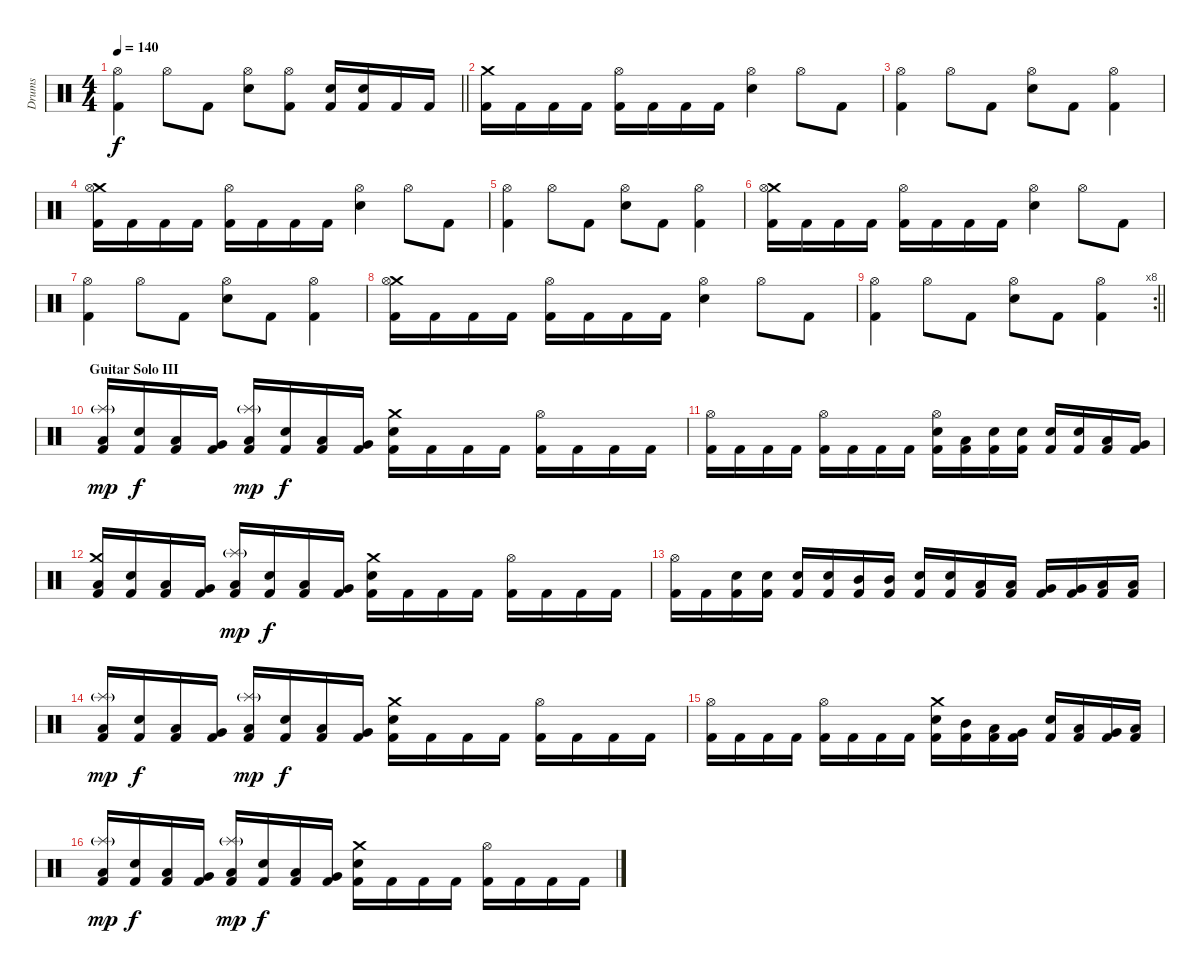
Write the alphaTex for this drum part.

\track ("Drums" "Drums") {instrument percussion}
\staff {score}
\articulation defaults
\ts (4 4)
\tempo 140
\clef neutral
\barLineRight lightlight
\ks c
("Hi-Hat (open)" "Kick (hit) 2").4{dy f} "Hi-Hat (open)".8 "Kick (hit) 2".8 ("Hi-Hat (open)" "Electric Snare (hit)").8 ("Hi-Hat (open)" "Kick (hit) 2").8 ("Electric Snare (hit)" "Kick (hit) 2").16 ("Electric Snare (hit)" "Kick (hit) 2").16 "Kick (hit) 2".16 "Kick (hit) 2".16 |
\section ("" "")
("Crash medium (hit)" "Kick (hit) 2").16 "Kick (hit) 2".16 "Kick (hit) 2".16 "Kick (hit) 2".16 ("Hi-Hat (open)" "Kick (hit) 2").16 "Kick (hit) 2".16 "Kick (hit) 2".16 "Kick (hit) 2".16 ("Hi-Hat (open)" "Electric Snare (hit)").4 "Hi-Hat (open)".8 "Kick (hit) 2".8 |
("Hi-Hat (open)" "Kick (hit) 2").4 "Hi-Hat (open)".8 "Kick (hit) 2".8 ("Hi-Hat (open)" "Electric Snare (hit)").8 "Kick (hit) 2".8 ("Hi-Hat (open)" "Kick (hit) 2").4 |
("Crash medium (hit)" "Hi-Hat (open)" "Kick (hit) 2").16 "Kick (hit) 2".16 "Kick (hit) 2".16 "Kick (hit) 2".16 ("Hi-Hat (open)" "Kick (hit) 2").16 "Kick (hit) 2".16 "Kick (hit) 2".16 "Kick (hit) 2".16 ("Hi-Hat (open)" "Electric Snare (hit)").4 "Hi-Hat (open)".8 "Kick (hit) 2".8 |
("Hi-Hat (open)" "Kick (hit) 2").4 "Hi-Hat (open)".8 "Kick (hit) 2".8 ("Hi-Hat (open)" "Electric Snare (hit)").8 "Kick (hit) 2".8 ("Hi-Hat (open)" "Kick (hit) 2").4 |
("Crash medium (hit)" "Hi-Hat (open)" "Kick (hit) 2").16 "Kick (hit) 2".16 "Kick (hit) 2".16 "Kick (hit) 2".16 ("Hi-Hat (open)" "Kick (hit) 2").16 "Kick (hit) 2".16 "Kick (hit) 2".16 "Kick (hit) 2".16 ("Hi-Hat (open)" "Electric Snare (hit)").4 "Hi-Hat (open)".8 "Kick (hit) 2".8 |
("Hi-Hat (open)" "Kick (hit) 2").4 "Hi-Hat (open)".8 "Kick (hit) 2".8 ("Hi-Hat (open)" "Electric Snare (hit)").8 "Kick (hit) 2".8 ("Hi-Hat (open)" "Kick (hit) 2").4 |
("Crash medium (hit)" "Hi-Hat (open)" "Kick (hit) 2").16 "Kick (hit) 2".16 "Kick (hit) 2".16 "Kick (hit) 2".16 ("Hi-Hat (open)" "Kick (hit) 2").16 "Kick (hit) 2".16 "Kick (hit) 2".16 "Kick (hit) 2".16 ("Hi-Hat (open)" "Electric Snare (hit)").4 "Hi-Hat (open)".8 "Kick (hit) 2".8 |
\rc 8
\barLineRight lightlight
("Hi-Hat (open)" "Kick (hit) 2").4 "Hi-Hat (open)".8 "Kick (hit) 2".8 ("Hi-Hat (open)" "Electric Snare (hit)").8 "Kick (hit) 2".8 ("Hi-Hat (open)" "Kick (hit) 2").4 |
\section ("" "Guitar Solo III")
("Splash (hit)"{g} "Low Tom (hit)" "Kick (hit) 2").16{dy mp} ("Electric Snare (hit)" "Kick (hit) 2").16{dy f} ("Low Tom (hit)" "Kick (hit) 2").16 ("Very Low Tom (hit)" "Kick (hit) 2").16 ("Splash (hit)"{g} "Low Tom (hit)" "Kick (hit) 2").16{dy mp} ("Electric Snare (hit)" "Kick (hit) 2").16{dy f} ("Low Tom (hit)" "Kick (hit) 2").16 ("Very Low Tom (hit)" "Kick (hit) 2").16 ("Crash medium (hit)" "Electric Snare (hit)" "Kick (hit) 2").16 "Kick (hit) 2".16 "Kick (hit) 2".16 "Kick (hit) 2".16 ("Hi-Hat (open)" "Kick (hit) 2").16 "Kick (hit) 2".16 "Kick (hit) 2".16 "Kick (hit) 2".16 |
("Hi-Hat (open)" "Kick (hit) 2").16 "Kick (hit) 2".16 "Kick (hit) 2".16 "Kick (hit) 2".16 ("Hi-Hat (open)" "Kick (hit) 2").16 "Kick (hit) 2".16 "Kick (hit) 2".16 "Kick (hit) 2".16 ("Hi-Hat (open)" "Electric Snare (hit)" "Kick (hit) 2").16 ("Low Tom (hit)" "Kick (hit) 2").16 ("Electric Snare (hit)" "Kick (hit) 2").16 ("Electric Snare (hit)" "Kick (hit) 2").16 ("Electric Snare (hit)" "Kick (hit) 2").16 ("Electric Snare (hit)" "Kick (hit) 2").16 ("Low Tom (hit)" "Kick (hit) 2").16 ("Very Low Tom (hit)" "Kick (hit) 2").16 |
("Crash medium (hit)" "Low Tom (hit)" "Kick (hit) 2").16 ("Electric Snare (hit)" "Kick (hit) 2").16 ("Low Tom (hit)" "Kick (hit) 2").16 ("Very Low Tom (hit)" "Kick (hit) 2").16 ("Splash (hit)"{g} "Low Tom (hit)" "Kick (hit) 2").16{dy mp} ("Electric Snare (hit)" "Kick (hit) 2").16{dy f} ("Low Tom (hit)" "Kick (hit) 2").16 ("Very Low Tom (hit)" "Kick (hit) 2").16 ("Crash medium (hit)" "Electric Snare (hit)" "Kick (hit) 2").16 "Kick (hit) 2".16 "Kick (hit) 2".16 "Kick (hit) 2".16 ("Hi-Hat (open)" "Kick (hit) 2").16 "Kick (hit) 2".16 "Kick (hit) 2".16 "Kick (hit) 2".16 |
("Hi-Hat (open)" "Kick (hit) 2").16 "Kick (hit) 2".16 ("Electric Snare (hit)" "Kick (hit) 2").16 ("Electric Snare (hit)" "Kick (hit) 2").16 ("Electric Snare (hit)" "Kick (hit) 2").16 ("Electric Snare (hit)" "Kick (hit) 2").16 ("Mid Tom (hit)" "Kick (hit) 2").16 ("Mid Tom (hit)" "Kick (hit) 2").16 ("Electric Snare (hit)" "Kick (hit) 2").16 ("Electric Snare (hit)" "Kick (hit) 2").16 ("Low Tom (hit)" "Kick (hit) 2").16 ("Low Tom (hit)" "Kick (hit) 2").16 ("Very Low Tom (hit)" "Kick (hit) 2").16 ("Very Low Tom (hit)" "Kick (hit) 2").16 ("Low Floor Tom (hit)" "Kick (hit) 2").16 ("Low Floor Tom (hit)" "Kick (hit) 2").16 |
("Splash (hit)"{g} "Low Tom (hit)" "Kick (hit) 2").16{dy mp} ("Electric Snare (hit)" "Kick (hit) 2").16{dy f} ("Low Tom (hit)" "Kick (hit) 2").16 ("Very Low Tom (hit)" "Kick (hit) 2").16 ("Splash (hit)"{g} "Low Tom (hit)" "Kick (hit) 2").16{dy mp} ("Electric Snare (hit)" "Kick (hit) 2").16{dy f} ("Low Tom (hit)" "Kick (hit) 2").16 ("Very Low Tom (hit)" "Kick (hit) 2").16 ("Crash medium (hit)" "Electric Snare (hit)" "Kick (hit) 2").16 "Kick (hit) 2".16 "Kick (hit) 2".16 "Kick (hit) 2".16 ("Hi-Hat (open)" "Kick (hit) 2").16 "Kick (hit) 2".16 "Kick (hit) 2".16 "Kick (hit) 2".16 |
("Hi-Hat (open)" "Kick (hit) 2").16 "Kick (hit) 2".16 "Kick (hit) 2".16 "Kick (hit) 2".16 ("Hi-Hat (open)" "Kick (hit) 2").16 "Kick (hit) 2".16 "Kick (hit) 2".16 "Kick (hit) 2".16 ("Crash medium (hit)" "Electric Snare (hit)" "Kick (hit) 2").16 ("Mid Tom (hit)" "Kick (hit) 2").16 ("Low Tom (hit)" "Kick (hit) 2").16 ("Very Low Tom (hit)" "Kick (hit) 2").16 ("Electric Snare (hit)" "Kick (hit) 2").16 ("Low Tom (hit)" "Kick (hit) 2").16 ("Very Low Tom (hit)" "Kick (hit) 2").16 ("Low Floor Tom (hit)" "Kick (hit) 2").16 |
("Splash (hit)"{g} "Low Tom (hit)" "Kick (hit) 2").16{dy mp} ("Electric Snare (hit)" "Kick (hit) 2").16{dy f} ("Low Tom (hit)" "Kick (hit) 2").16 ("Very Low Tom (hit)" "Kick (hit) 2").16 ("Splash (hit)"{g} "Low Tom (hit)" "Kick (hit) 2").16{dy mp} ("Electric Snare (hit)" "Kick (hit) 2").16{dy f} ("Low Tom (hit)" "Kick (hit) 2").16 ("Very Low Tom (hit)" "Kick (hit) 2").16 ("Crash medium (hit)" "Electric Snare (hit)" "Kick (hit) 2").16 "Kick (hit) 2".16 "Kick (hit) 2".16 "Kick (hit) 2".16 ("Hi-Hat (open)" "Kick (hit) 2").16 "Kick (hit) 2".16 "Kick (hit) 2".16 "Kick (hit) 2".16
